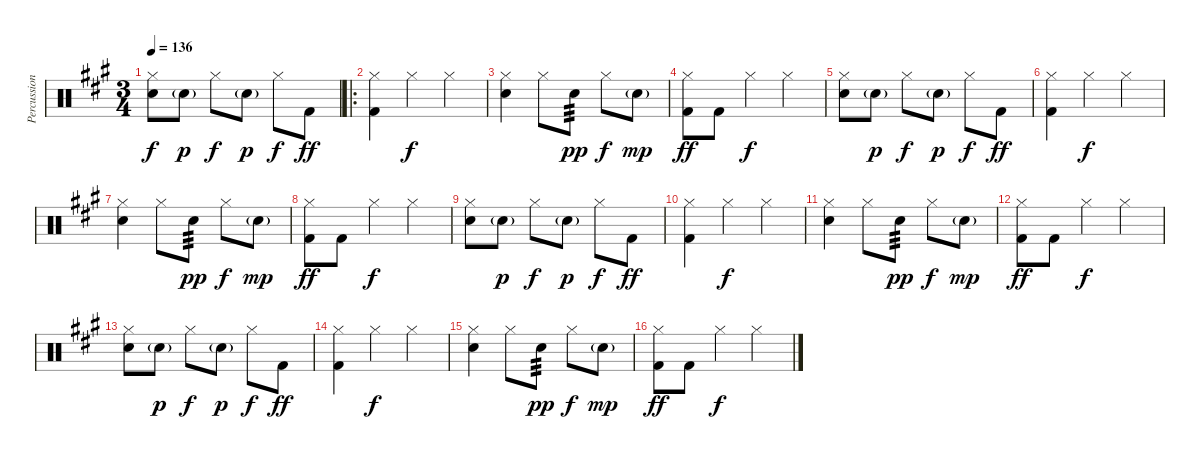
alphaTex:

\track ("Percussion" "Percussion") {solo instrument percussion}
\staff {score}
\articulation defaults
\ts (3 4)
\tempo 136
\clef neutral
\ks a
("Hi-Hat (closed)" "Snare (hit) 2").8{dy f} "Snare (hit) 2"{g}.8{dy p} "Hi-Hat (closed)".8{dy f} "Snare (hit) 2"{g}.8{dy p} "Hi-Hat (closed)".8{dy f} "Kick (hit) 2".8{dy ff} |
\ro
("Hi-Hat (closed)" "Kick (hit) 2").4 "Hi-Hat (closed)".4{dy f} "Hi-Hat (closed)".4 |
("Hi-Hat (closed)" "Snare (hit) 2").4 "Hi-Hat (closed)".8 "Snare (hit) 2".8{tp 3 dy pp} "Hi-Hat (closed)".8{dy f} "Snare (hit) 2"{g}.8{dy mp} |
("Hi-Hat (closed)" "Kick (hit) 2").8{dy ff} "Kick (hit) 2".8 "Hi-Hat (closed)".4{dy f} "Hi-Hat (closed)".4 |
("Hi-Hat (closed)" "Snare (hit) 2").8 "Snare (hit) 2"{g}.8{dy p} "Hi-Hat (closed)".8{dy f} "Snare (hit) 2"{g}.8{dy p} "Hi-Hat (closed)".8{dy f} "Kick (hit) 2".8{dy ff} |
("Hi-Hat (closed)" "Kick (hit) 2").4 "Hi-Hat (closed)".4{dy f} "Hi-Hat (closed)".4 |
("Hi-Hat (closed)" "Snare (hit) 2").4 "Hi-Hat (closed)".8 "Snare (hit) 2".8{tp 3 dy pp} "Hi-Hat (closed)".8{dy f} "Snare (hit) 2"{g}.8{dy mp} |
("Hi-Hat (closed)" "Kick (hit) 2").8{dy ff} "Kick (hit) 2".8 "Hi-Hat (closed)".4{dy f} "Hi-Hat (closed)".4 |
("Hi-Hat (closed)" "Snare (hit) 2").8 "Snare (hit) 2"{g}.8{dy p} "Hi-Hat (closed)".8{dy f} "Snare (hit) 2"{g}.8{dy p} "Hi-Hat (closed)".8{dy f} "Kick (hit) 2".8{dy ff} |
("Hi-Hat (closed)" "Kick (hit) 2").4 "Hi-Hat (closed)".4{dy f} "Hi-Hat (closed)".4 |
("Hi-Hat (closed)" "Snare (hit) 2").4 "Hi-Hat (closed)".8 "Snare (hit) 2".8{tp 3 dy pp} "Hi-Hat (closed)".8{dy f} "Snare (hit) 2"{g}.8{dy mp} |
("Hi-Hat (closed)" "Kick (hit) 2").8{dy ff} "Kick (hit) 2".8 "Hi-Hat (closed)".4{dy f} "Hi-Hat (closed)".4 |
("Hi-Hat (closed)" "Snare (hit) 2").8 "Snare (hit) 2"{g}.8{dy p} "Hi-Hat (closed)".8{dy f} "Snare (hit) 2"{g}.8{dy p} "Hi-Hat (closed)".8{dy f} "Kick (hit) 2".8{dy ff} |
("Hi-Hat (closed)" "Kick (hit) 2").4 "Hi-Hat (closed)".4{dy f} "Hi-Hat (closed)".4 |
("Hi-Hat (closed)" "Snare (hit) 2").4 "Hi-Hat (closed)".8 "Snare (hit) 2".8{tp 3 dy pp} "Hi-Hat (closed)".8{dy f} "Snare (hit) 2"{g}.8{dy mp} |
("Hi-Hat (closed)" "Kick (hit) 2").8{dy ff} "Kick (hit) 2".8 "Hi-Hat (closed)".4{dy f} "Hi-Hat (closed)".4
